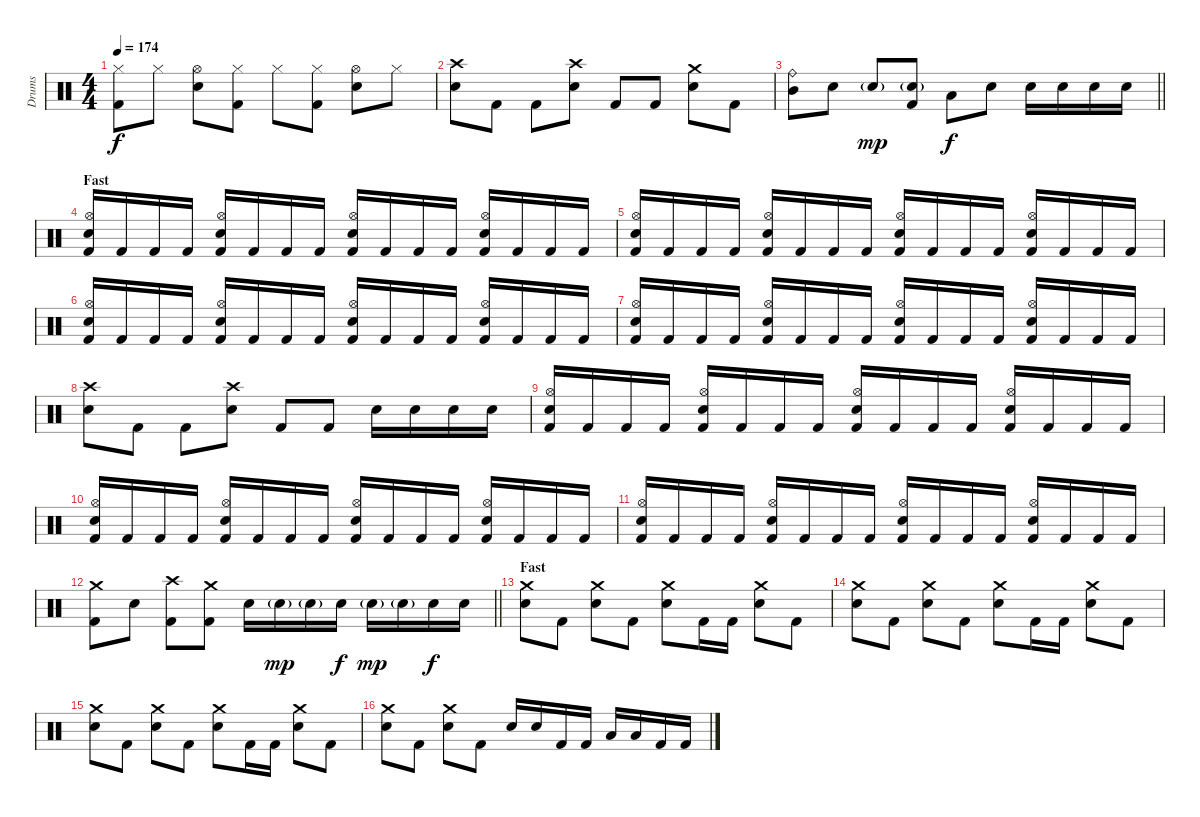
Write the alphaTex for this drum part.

\track ("Drums" "Drums") {instrument percussion}
\staff {score}
\articulation defaults
\ts (4 4)
\tempo 174
\clef neutral
\ks c
("Hi-Hat (closed)" "Kick (hit) 2").8{dy f} "Hi-Hat (closed)".8 ("Hi-Hat (open)" "Snare (hit) 2").8 ("Hi-Hat (closed)" "Kick (hit) 2").8 "Hi-Hat (closed)".8 ("Hi-Hat (closed)" "Kick (hit) 2").8 ("Hi-Hat (open)" "Snare (hit) 2").8 "Hi-Hat (closed)".8 |
("Crash high (hit)" "Snare (hit) 2").8 "Kick (hit) 2".8 "Kick (hit) 2".8 ("Crash high (hit)" "Snare (hit) 2").8 "Kick (hit) 2".8 "Kick (hit) 2".8 ("Crash medium (hit)" "Snare (hit) 2").8 "Kick (hit) 2".8 |
\barLineRight lightlight
("Ride (bell)" "Mid Tom (hit)").8 "Snare (hit) 2".8 "Snare (hit) 2"{g}.8{dy mp} ("Snare (hit) 2"{g} "Kick (hit) 2").8 "Low Tom (hit)".8{dy f} "Snare (hit) 2".8 "Snare (hit) 2".16 "Snare (hit) 2".16 "Snare (hit) 2".16 "Snare (hit) 2".16 |
\section ("" "Fast")
("Hi-Hat (open)" "Snare (hit) 2" "Kick (hit) 2").16 "Kick (hit) 2".16 "Kick (hit) 2".16 "Kick (hit) 2".16 ("Hi-Hat (open)" "Snare (hit) 2" "Kick (hit) 2").16 "Kick (hit) 2".16 "Kick (hit) 2".16 "Kick (hit) 2".16 ("Hi-Hat (open)" "Snare (hit) 2" "Kick (hit) 2").16 "Kick (hit) 2".16 "Kick (hit) 2".16 "Kick (hit) 2".16 ("Hi-Hat (open)" "Snare (hit) 2" "Kick (hit) 2").16 "Kick (hit) 2".16 "Kick (hit) 2".16 "Kick (hit) 2".16 |
("Hi-Hat (open)" "Snare (hit) 2" "Kick (hit) 2").16 "Kick (hit) 2".16 "Kick (hit) 2".16 "Kick (hit) 2".16 ("Hi-Hat (open)" "Snare (hit) 2" "Kick (hit) 2").16 "Kick (hit) 2".16 "Kick (hit) 2".16 "Kick (hit) 2".16 ("Hi-Hat (open)" "Snare (hit) 2" "Kick (hit) 2").16 "Kick (hit) 2".16 "Kick (hit) 2".16 "Kick (hit) 2".16 ("Hi-Hat (open)" "Snare (hit) 2" "Kick (hit) 2").16 "Kick (hit) 2".16 "Kick (hit) 2".16 "Kick (hit) 2".16 |
("Hi-Hat (open)" "Snare (hit) 2" "Kick (hit) 2").16 "Kick (hit) 2".16 "Kick (hit) 2".16 "Kick (hit) 2".16 ("Hi-Hat (open)" "Snare (hit) 2" "Kick (hit) 2").16 "Kick (hit) 2".16 "Kick (hit) 2".16 "Kick (hit) 2".16 ("Hi-Hat (open)" "Snare (hit) 2" "Kick (hit) 2").16 "Kick (hit) 2".16 "Kick (hit) 2".16 "Kick (hit) 2".16 ("Hi-Hat (open)" "Snare (hit) 2" "Kick (hit) 2").16 "Kick (hit) 2".16 "Kick (hit) 2".16 "Kick (hit) 2".16 |
("Hi-Hat (open)" "Snare (hit) 2" "Kick (hit) 2").16 "Kick (hit) 2".16 "Kick (hit) 2".16 "Kick (hit) 2".16 ("Hi-Hat (open)" "Snare (hit) 2" "Kick (hit) 2").16 "Kick (hit) 2".16 "Kick (hit) 2".16 "Kick (hit) 2".16 ("Hi-Hat (open)" "Snare (hit) 2" "Kick (hit) 2").16 "Kick (hit) 2".16 "Kick (hit) 2".16 "Kick (hit) 2".16 ("Hi-Hat (open)" "Snare (hit) 2" "Kick (hit) 2").16 "Kick (hit) 2".16 "Kick (hit) 2".16 "Kick (hit) 2".16 |
("Crash high (hit)" "Snare (hit) 2").8 "Kick (hit) 2".8 "Kick (hit) 2".8 ("Crash high (hit)" "Snare (hit) 2").8 "Kick (hit) 2".8 "Kick (hit) 2".8 "Snare (hit) 2".16 "Snare (hit) 2".16 "Snare (hit) 2".16 "Snare (hit) 2".16 |
("Hi-Hat (open)" "Snare (hit) 2" "Kick (hit) 2").16 "Kick (hit) 2".16 "Kick (hit) 2".16 "Kick (hit) 2".16 ("Hi-Hat (open)" "Snare (hit) 2" "Kick (hit) 2").16 "Kick (hit) 2".16 "Kick (hit) 2".16 "Kick (hit) 2".16 ("Hi-Hat (open)" "Snare (hit) 2" "Kick (hit) 2").16 "Kick (hit) 2".16 "Kick (hit) 2".16 "Kick (hit) 2".16 ("Hi-Hat (open)" "Snare (hit) 2" "Kick (hit) 2").16 "Kick (hit) 2".16 "Kick (hit) 2".16 "Kick (hit) 2".16 |
("Hi-Hat (open)" "Snare (hit) 2" "Kick (hit) 2").16 "Kick (hit) 2".16 "Kick (hit) 2".16 "Kick (hit) 2".16 ("Hi-Hat (open)" "Snare (hit) 2" "Kick (hit) 2").16 "Kick (hit) 2".16 "Kick (hit) 2".16 "Kick (hit) 2".16 ("Hi-Hat (open)" "Snare (hit) 2" "Kick (hit) 2").16 "Kick (hit) 2".16 "Kick (hit) 2".16 "Kick (hit) 2".16 ("Hi-Hat (open)" "Snare (hit) 2" "Kick (hit) 2").16 "Kick (hit) 2".16 "Kick (hit) 2".16 "Kick (hit) 2".16 |
("Hi-Hat (open)" "Snare (hit) 2" "Kick (hit) 2").16 "Kick (hit) 2".16 "Kick (hit) 2".16 "Kick (hit) 2".16 ("Hi-Hat (open)" "Snare (hit) 2" "Kick (hit) 2").16 "Kick (hit) 2".16 "Kick (hit) 2".16 "Kick (hit) 2".16 ("Hi-Hat (open)" "Snare (hit) 2" "Kick (hit) 2").16 "Kick (hit) 2".16 "Kick (hit) 2".16 "Kick (hit) 2".16 ("Hi-Hat (open)" "Snare (hit) 2" "Kick (hit) 2").16 "Kick (hit) 2".16 "Kick (hit) 2".16 "Kick (hit) 2".16 |
\barLineRight lightlight
("Crash medium (hit)" "Kick (hit) 2").8 "Snare (hit) 2".8 ("Crash high (hit)" "Kick (hit) 2").8 ("Crash medium (hit)" "Kick (hit) 2").8 "Snare (hit) 2".16 "Snare (hit) 2"{g}.16{dy mp} "Snare (hit) 2"{g}.16 "Snare (hit) 2".16{dy f} "Snare (hit) 2"{g}.16{dy mp} "Snare (hit) 2"{g}.16 "Snare (hit) 2".16{dy f} "Snare (hit) 2".16 |
\section ("" "Fast")
("Crash medium (hit)" "Snare (hit) 2").8 "Kick (hit) 2".8 ("Crash medium (hit)" "Snare (hit) 2").8 "Kick (hit) 2".8 ("Crash medium (hit)" "Snare (hit) 2").8 "Kick (hit) 2".16 "Kick (hit) 2".16 ("Crash medium (hit)" "Snare (hit) 2").8 "Kick (hit) 2".8 |
("Crash medium (hit)" "Snare (hit) 2").8 "Kick (hit) 2".8 ("Crash medium (hit)" "Snare (hit) 2").8 "Kick (hit) 2".8 ("Crash medium (hit)" "Snare (hit) 2").8 "Kick (hit) 2".16 "Kick (hit) 2".16 ("Crash medium (hit)" "Snare (hit) 2").8 "Kick (hit) 2".8 |
("Crash medium (hit)" "Snare (hit) 2").8 "Kick (hit) 2".8 ("Crash medium (hit)" "Snare (hit) 2").8 "Kick (hit) 2".8 ("Crash medium (hit)" "Snare (hit) 2").8 "Kick (hit) 2".16 "Kick (hit) 2".16 ("Crash medium (hit)" "Snare (hit) 2").8 "Kick (hit) 2".8 |
("Crash medium (hit)" "Snare (hit) 2").8 "Kick (hit) 2".8 ("Crash medium (hit)" "Snare (hit) 2").8 "Kick (hit) 2".8 "Snare (hit) 2".16 "Snare (hit) 2".16 "Kick (hit) 2".16 "Kick (hit) 2".16 "Low Tom (hit)".16 "Low Tom (hit)".16 "Kick (hit) 2".16 "Kick (hit) 2".16
